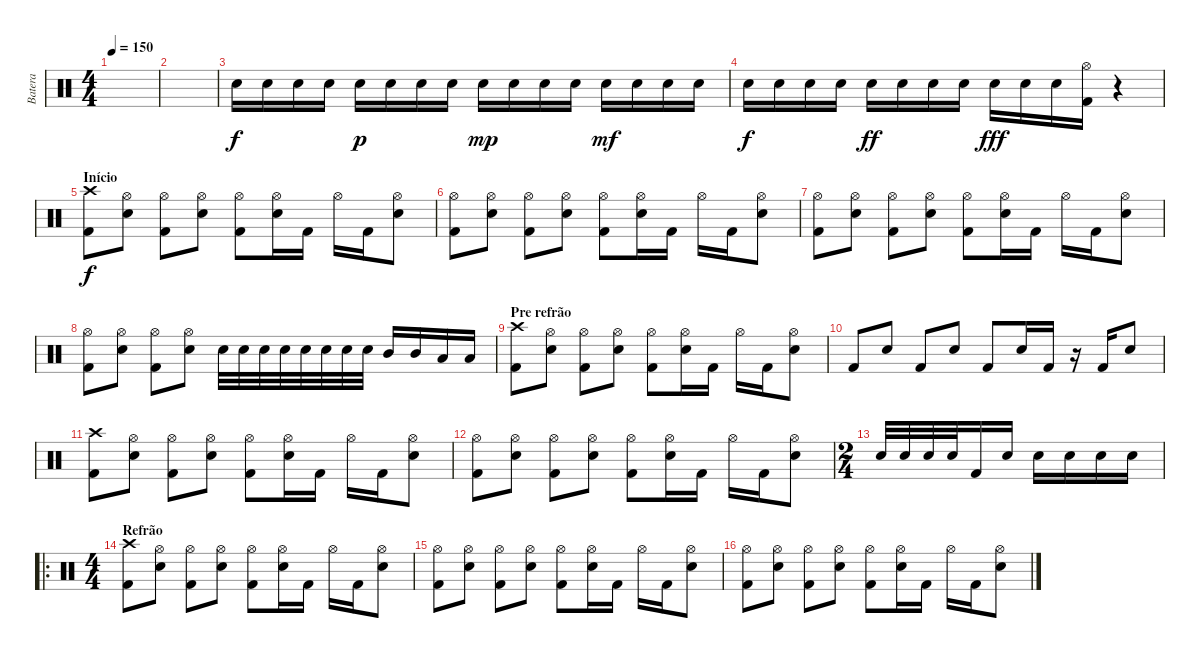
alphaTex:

\track ("Batera" "Batera") {instrument percussion}
\staff {score}
\articulation defaults
\ts (4 4)
\tempo 150
\clef neutral
\ks c
|
|
"Snare (hit) 2".16 "Snare (hit) 2".16 "Snare (hit) 2".16 "Snare (hit) 2".16 "Snare (hit) 2".16{dy p} "Snare (hit) 2".16 "Snare (hit) 2".16 "Snare (hit) 2".16 "Snare (hit) 2".16{dy mp} "Snare (hit) 2".16 "Snare (hit) 2".16 "Snare (hit) 2".16 "Snare (hit) 2".16{dy mf} "Snare (hit) 2".16 "Snare (hit) 2".16 "Snare (hit) 2".16 |
"Snare (hit) 2".16{dy f} "Snare (hit) 2".16 "Snare (hit) 2".16 "Snare (hit) 2".16 "Snare (hit) 2".16{dy ff} "Snare (hit) 2".16 "Snare (hit) 2".16 "Snare (hit) 2".16 "Snare (hit) 2".16{dy fff} "Snare (hit) 2".16 "Snare (hit) 2".16 ("Hi-Hat (open)" "Kick (hit) 2").16 r.4 |
\section ("" "Início")
("Crash high (hit)" "Kick (hit) 2").8{dy f} ("Hi-Hat (open)" "Snare (hit) 2").8 ("Hi-Hat (open)" "Kick (hit) 2").8 ("Hi-Hat (open)" "Snare (hit) 2").8 ("Hi-Hat (open)" "Kick (hit) 2").8 ("Hi-Hat (open)" "Snare (hit) 2").16 "Kick (hit) 2".16 "Hi-Hat (open)".16 "Kick (hit) 2".16 ("Hi-Hat (open)" "Snare (hit) 2").8 |
("Hi-Hat (open)" "Kick (hit) 2").8 ("Hi-Hat (open)" "Snare (hit) 2").8 ("Hi-Hat (open)" "Kick (hit) 2").8 ("Hi-Hat (open)" "Snare (hit) 2").8 ("Hi-Hat (open)" "Kick (hit) 2").8 ("Hi-Hat (open)" "Snare (hit) 2").16 "Kick (hit) 2".16 "Hi-Hat (open)".16 "Kick (hit) 2".16 ("Hi-Hat (open)" "Snare (hit) 2").8 |
("Hi-Hat (open)" "Kick (hit) 2").8 ("Hi-Hat (open)" "Snare (hit) 2").8 ("Hi-Hat (open)" "Kick (hit) 2").8 ("Hi-Hat (open)" "Snare (hit) 2").8 ("Hi-Hat (open)" "Kick (hit) 2").8 ("Hi-Hat (open)" "Snare (hit) 2").16 "Kick (hit) 2".16 "Hi-Hat (open)".16 "Kick (hit) 2".16 ("Hi-Hat (open)" "Snare (hit) 2").8 |
("Hi-Hat (open)" "Kick (hit) 2").8 ("Hi-Hat (open)" "Snare (hit) 2").8 ("Hi-Hat (open)" "Kick (hit) 2").8 ("Hi-Hat (open)" "Snare (hit) 2").8 "Snare (hit) 2".32 "Snare (hit) 2".32 "Snare (hit) 2".32 "Snare (hit) 2".32 "Snare (hit) 2".32 "Snare (hit) 2".32 "Snare (hit) 2".32 "Snare (hit) 2".32 "Mid Tom (hit)".16 "Mid Tom (hit)".16 "Low Tom (hit)".16 "Low Tom (hit)".16 |
\section ("" "Pre refrão")
("Crash high (hit)" "Kick (hit) 2").8 ("Hi-Hat (open)" "Snare (hit) 2").8 ("Hi-Hat (open)" "Kick (hit) 2").8 ("Hi-Hat (open)" "Snare (hit) 2").8 ("Hi-Hat (open)" "Kick (hit) 2").8 ("Hi-Hat (open)" "Snare (hit) 2").16 "Kick (hit) 2".16 "Hi-Hat (open)".16 "Kick (hit) 2".16 ("Hi-Hat (open)" "Snare (hit) 2").8 |
"Kick (hit) 2".8 "Snare (hit) 2".8 "Kick (hit) 2".8 "Snare (hit) 2".8 "Kick (hit) 2".8 "Snare (hit) 2".16 "Kick (hit) 2".16 r.16 "Kick (hit) 2".16 "Snare (hit) 2".8 |
("Crash high (hit)" "Kick (hit) 2").8 ("Hi-Hat (open)" "Snare (hit) 2").8 ("Hi-Hat (open)" "Kick (hit) 2").8 ("Hi-Hat (open)" "Snare (hit) 2").8 ("Hi-Hat (open)" "Kick (hit) 2").8 ("Hi-Hat (open)" "Snare (hit) 2").16 "Kick (hit) 2".16 "Hi-Hat (open)".16 "Kick (hit) 2".16 ("Hi-Hat (open)" "Snare (hit) 2").8 |
("Hi-Hat (open)" "Kick (hit) 2").8 ("Hi-Hat (open)" "Snare (hit) 2").8 ("Hi-Hat (open)" "Kick (hit) 2").8 ("Hi-Hat (open)" "Snare (hit) 2").8 ("Hi-Hat (open)" "Kick (hit) 2").8 ("Hi-Hat (open)" "Snare (hit) 2").16 "Kick (hit) 2".16 "Hi-Hat (open)".16 "Kick (hit) 2".16 ("Hi-Hat (open)" "Snare (hit) 2").8 |
\ts (2 4)
"Snare (hit) 2".32 "Snare (hit) 2".32 "Snare (hit) 2".32 "Snare (hit) 2".32 "Kick (hit) 2".16 "Snare (hit) 2".16 "Snare (hit) 2".16 "Snare (hit) 2".16 "Snare (hit) 2".16 "Snare (hit) 2".16 |
\ro
\ts (4 4)
\section ("" "Refrão")
("Crash high (hit)" "Kick (hit) 2").8 ("Hi-Hat (open)" "Snare (hit) 2").8 ("Hi-Hat (open)" "Kick (hit) 2").8 ("Hi-Hat (open)" "Snare (hit) 2").8 ("Hi-Hat (open)" "Kick (hit) 2").8 ("Hi-Hat (open)" "Snare (hit) 2").16 "Kick (hit) 2".16 "Hi-Hat (open)".16 "Kick (hit) 2".16 ("Hi-Hat (open)" "Snare (hit) 2").8 |
("Hi-Hat (open)" "Kick (hit) 2").8 ("Hi-Hat (open)" "Snare (hit) 2").8 ("Hi-Hat (open)" "Kick (hit) 2").8 ("Hi-Hat (open)" "Snare (hit) 2").8 ("Hi-Hat (open)" "Kick (hit) 2").8 ("Hi-Hat (open)" "Snare (hit) 2").16 "Kick (hit) 2".16 "Hi-Hat (open)".16 "Kick (hit) 2".16 ("Hi-Hat (open)" "Snare (hit) 2").8 |
("Hi-Hat (open)" "Kick (hit) 2").8 ("Hi-Hat (open)" "Snare (hit) 2").8 ("Hi-Hat (open)" "Kick (hit) 2").8 ("Hi-Hat (open)" "Snare (hit) 2").8 ("Hi-Hat (open)" "Kick (hit) 2").8 ("Hi-Hat (open)" "Snare (hit) 2").16 "Kick (hit) 2".16 "Hi-Hat (open)".16 "Kick (hit) 2".16 ("Hi-Hat (open)" "Snare (hit) 2").8
